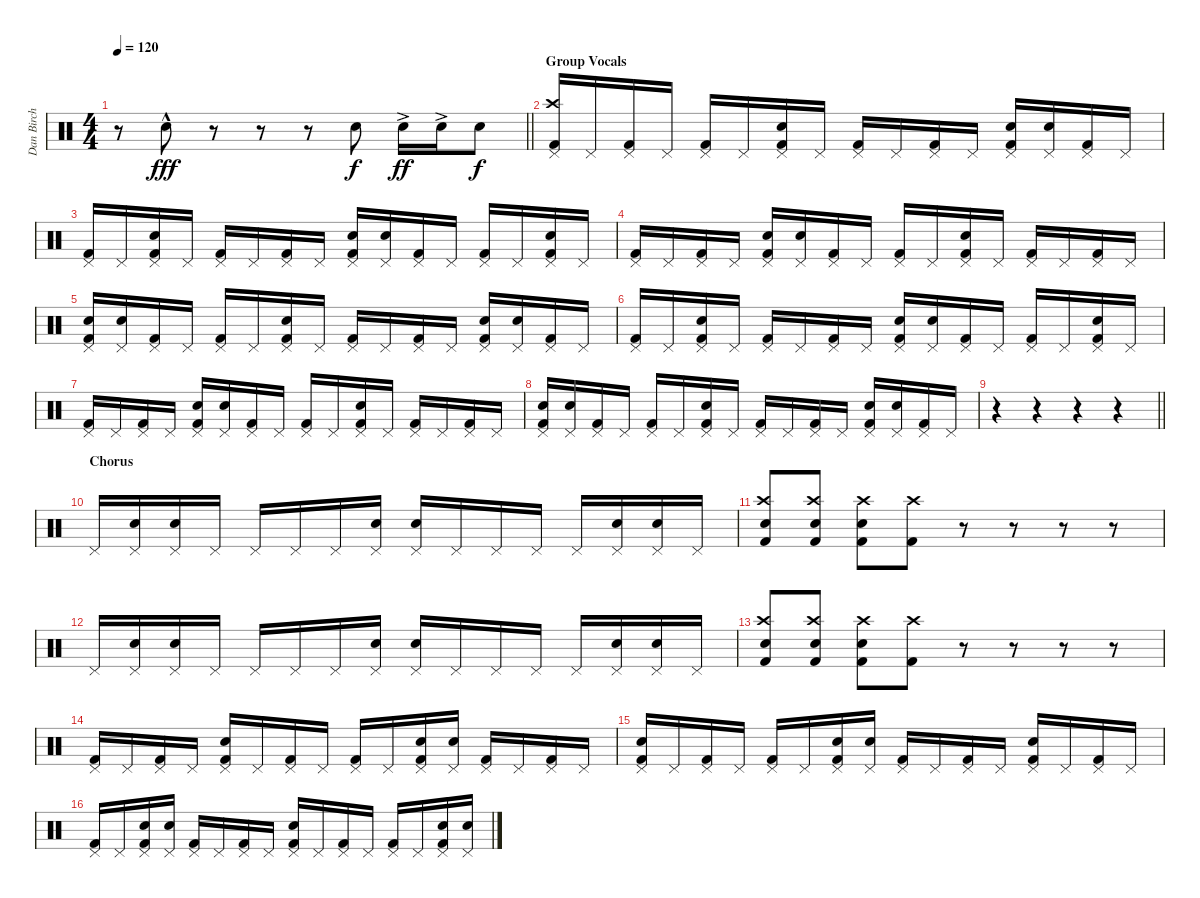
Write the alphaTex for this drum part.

\track ("Dan Birch" "Dan Birch") {instrument percussion}
\staff {score}
\articulation defaults
\ts (4 4)
\tempo 120
\clef neutral
\barLineRight lightlight
\ks c
r.8{dy f} "Snare (hit) 2"{hac}.8{dy fff} r.8 r.8 r.8 "Snare (hit) 2".8{dy f} "Snare (hit) 2"{ac}.16{dy ff} "Snare (hit) 2"{ac}.16 "Snare (hit) 2".8{dy f} |
\section ("" "Group Vocals")
("Pedal Hi-Hat (hit)" "Crash high (hit)" "Kick (hit) 2").16 "Pedal Hi-Hat (hit)".16 ("Pedal Hi-Hat (hit)" "Kick (hit) 2").16 "Pedal Hi-Hat (hit)".16 ("Pedal Hi-Hat (hit)" "Kick (hit) 2").16 "Pedal Hi-Hat (hit)".16 ("Pedal Hi-Hat (hit)" "Snare (hit) 2" "Kick (hit) 2").16 "Pedal Hi-Hat (hit)".16 ("Pedal Hi-Hat (hit)" "Kick (hit) 2").16 "Pedal Hi-Hat (hit)".16 ("Pedal Hi-Hat (hit)" "Kick (hit) 2").16 "Pedal Hi-Hat (hit)".16 ("Pedal Hi-Hat (hit)" "Snare (hit) 2" "Kick (hit) 2").16 ("Pedal Hi-Hat (hit)" "Snare (hit) 2").16 ("Pedal Hi-Hat (hit)" "Kick (hit) 2").16 "Pedal Hi-Hat (hit)".16 |
("Pedal Hi-Hat (hit)" "Kick (hit) 2").16 "Pedal Hi-Hat (hit)".16 ("Pedal Hi-Hat (hit)" "Snare (hit) 2" "Kick (hit) 2").16 "Pedal Hi-Hat (hit)".16 ("Pedal Hi-Hat (hit)" "Kick (hit) 2").16 "Pedal Hi-Hat (hit)".16 ("Pedal Hi-Hat (hit)" "Kick (hit) 2").16 "Pedal Hi-Hat (hit)".16 ("Pedal Hi-Hat (hit)" "Snare (hit) 2" "Kick (hit) 2").16 ("Pedal Hi-Hat (hit)" "Snare (hit) 2").16 ("Pedal Hi-Hat (hit)" "Kick (hit) 2").16 "Pedal Hi-Hat (hit)".16 ("Pedal Hi-Hat (hit)" "Kick (hit) 2").16 "Pedal Hi-Hat (hit)".16 ("Pedal Hi-Hat (hit)" "Snare (hit) 2" "Kick (hit) 2").16 "Pedal Hi-Hat (hit)".16 |
("Pedal Hi-Hat (hit)" "Kick (hit) 2").16 "Pedal Hi-Hat (hit)".16 ("Pedal Hi-Hat (hit)" "Kick (hit) 2").16 "Pedal Hi-Hat (hit)".16 ("Pedal Hi-Hat (hit)" "Snare (hit) 2" "Kick (hit) 2").16 ("Pedal Hi-Hat (hit)" "Snare (hit) 2").16 ("Pedal Hi-Hat (hit)" "Kick (hit) 2").16 "Pedal Hi-Hat (hit)".16 ("Pedal Hi-Hat (hit)" "Kick (hit) 2").16 "Pedal Hi-Hat (hit)".16 ("Pedal Hi-Hat (hit)" "Snare (hit) 2" "Kick (hit) 2").16 "Pedal Hi-Hat (hit)".16 ("Pedal Hi-Hat (hit)" "Kick (hit) 2").16 "Pedal Hi-Hat (hit)".16 ("Pedal Hi-Hat (hit)" "Kick (hit) 2").16 "Pedal Hi-Hat (hit)".16 |
("Pedal Hi-Hat (hit)" "Snare (hit) 2" "Kick (hit) 2").16 ("Pedal Hi-Hat (hit)" "Snare (hit) 2").16 ("Pedal Hi-Hat (hit)" "Kick (hit) 2").16 "Pedal Hi-Hat (hit)".16 ("Pedal Hi-Hat (hit)" "Kick (hit) 2").16 "Pedal Hi-Hat (hit)".16 ("Pedal Hi-Hat (hit)" "Snare (hit) 2" "Kick (hit) 2").16 "Pedal Hi-Hat (hit)".16 ("Pedal Hi-Hat (hit)" "Kick (hit) 2").16 "Pedal Hi-Hat (hit)".16 ("Pedal Hi-Hat (hit)" "Kick (hit) 2").16 "Pedal Hi-Hat (hit)".16 ("Pedal Hi-Hat (hit)" "Snare (hit) 2" "Kick (hit) 2").16 ("Pedal Hi-Hat (hit)" "Snare (hit) 2").16 ("Pedal Hi-Hat (hit)" "Kick (hit) 2").16 "Pedal Hi-Hat (hit)".16 |
("Pedal Hi-Hat (hit)" "Kick (hit) 2").16 "Pedal Hi-Hat (hit)".16 ("Pedal Hi-Hat (hit)" "Snare (hit) 2" "Kick (hit) 2").16 "Pedal Hi-Hat (hit)".16 ("Pedal Hi-Hat (hit)" "Kick (hit) 2").16 "Pedal Hi-Hat (hit)".16 ("Pedal Hi-Hat (hit)" "Kick (hit) 2").16 "Pedal Hi-Hat (hit)".16 ("Pedal Hi-Hat (hit)" "Snare (hit) 2" "Kick (hit) 2").16 ("Pedal Hi-Hat (hit)" "Snare (hit) 2").16 ("Pedal Hi-Hat (hit)" "Kick (hit) 2").16 "Pedal Hi-Hat (hit)".16 ("Pedal Hi-Hat (hit)" "Kick (hit) 2").16 "Pedal Hi-Hat (hit)".16 ("Pedal Hi-Hat (hit)" "Snare (hit) 2" "Kick (hit) 2").16 "Pedal Hi-Hat (hit)".16 |
("Pedal Hi-Hat (hit)" "Kick (hit) 2").16 "Pedal Hi-Hat (hit)".16 ("Pedal Hi-Hat (hit)" "Kick (hit) 2").16 "Pedal Hi-Hat (hit)".16 ("Pedal Hi-Hat (hit)" "Snare (hit) 2" "Kick (hit) 2").16 ("Pedal Hi-Hat (hit)" "Snare (hit) 2").16 ("Pedal Hi-Hat (hit)" "Kick (hit) 2").16 "Pedal Hi-Hat (hit)".16 ("Pedal Hi-Hat (hit)" "Kick (hit) 2").16 "Pedal Hi-Hat (hit)".16 ("Pedal Hi-Hat (hit)" "Snare (hit) 2" "Kick (hit) 2").16 "Pedal Hi-Hat (hit)".16 ("Pedal Hi-Hat (hit)" "Kick (hit) 2").16 "Pedal Hi-Hat (hit)".16 ("Pedal Hi-Hat (hit)" "Kick (hit) 2").16 "Pedal Hi-Hat (hit)".16 |
("Pedal Hi-Hat (hit)" "Snare (hit) 2" "Kick (hit) 2").16 ("Pedal Hi-Hat (hit)" "Snare (hit) 2").16 ("Pedal Hi-Hat (hit)" "Kick (hit) 2").16 "Pedal Hi-Hat (hit)".16 ("Pedal Hi-Hat (hit)" "Kick (hit) 2").16 "Pedal Hi-Hat (hit)".16 ("Pedal Hi-Hat (hit)" "Snare (hit) 2" "Kick (hit) 2").16 "Pedal Hi-Hat (hit)".16 ("Pedal Hi-Hat (hit)" "Kick (hit) 2").16 "Pedal Hi-Hat (hit)".16 ("Pedal Hi-Hat (hit)" "Kick (hit) 2").16 "Pedal Hi-Hat (hit)".16 ("Pedal Hi-Hat (hit)" "Snare (hit) 2" "Kick (hit) 2").16 ("Pedal Hi-Hat (hit)" "Snare (hit) 2").16 ("Pedal Hi-Hat (hit)" "Kick (hit) 2").16 "Pedal Hi-Hat (hit)".16 |
\barLineRight lightlight
r.4 r.4 r.4 r.4 |
\section ("" "Chorus")
"Pedal Hi-Hat (hit)".16 ("Pedal Hi-Hat (hit)" "Snare (hit) 2").16 ("Pedal Hi-Hat (hit)" "Snare (hit) 2").16 "Pedal Hi-Hat (hit)".16 "Pedal Hi-Hat (hit)".16 "Pedal Hi-Hat (hit)".16 "Pedal Hi-Hat (hit)".16 ("Pedal Hi-Hat (hit)" "Snare (hit) 2").16 ("Pedal Hi-Hat (hit)" "Snare (hit) 2").16 "Pedal Hi-Hat (hit)".16 "Pedal Hi-Hat (hit)".16 "Pedal Hi-Hat (hit)".16 "Pedal Hi-Hat (hit)".16 ("Pedal Hi-Hat (hit)" "Snare (hit) 2").16 ("Pedal Hi-Hat (hit)" "Snare (hit) 2").16 "Pedal Hi-Hat (hit)".16 |
("Crash high (hit)" "Snare (hit) 2" "Kick (hit) 2").8 ("Crash high (hit)" "Snare (hit) 2" "Kick (hit) 2").8 ("Crash high (hit)" "Snare (hit) 2" "Kick (hit) 2").8 ("Crash high (hit)" "Kick (hit) 2").8 r.8 r.8 r.8 r.8 |
"Pedal Hi-Hat (hit)".16 ("Pedal Hi-Hat (hit)" "Snare (hit) 2").16 ("Pedal Hi-Hat (hit)" "Snare (hit) 2").16 "Pedal Hi-Hat (hit)".16 "Pedal Hi-Hat (hit)".16 "Pedal Hi-Hat (hit)".16 "Pedal Hi-Hat (hit)".16 ("Pedal Hi-Hat (hit)" "Snare (hit) 2").16 ("Pedal Hi-Hat (hit)" "Snare (hit) 2").16 "Pedal Hi-Hat (hit)".16 "Pedal Hi-Hat (hit)".16 "Pedal Hi-Hat (hit)".16 "Pedal Hi-Hat (hit)".16 ("Pedal Hi-Hat (hit)" "Snare (hit) 2").16 ("Pedal Hi-Hat (hit)" "Snare (hit) 2").16 "Pedal Hi-Hat (hit)".16 |
("Crash high (hit)" "Snare (hit) 2" "Kick (hit) 2").8 ("Crash high (hit)" "Snare (hit) 2" "Kick (hit) 2").8 ("Crash high (hit)" "Snare (hit) 2" "Kick (hit) 2").8 ("Crash high (hit)" "Kick (hit) 2").8 r.8 r.8 r.8 r.8 |
("Pedal Hi-Hat (hit)" "Kick (hit) 2").16 "Pedal Hi-Hat (hit)".16 ("Pedal Hi-Hat (hit)" "Kick (hit) 2").16 "Pedal Hi-Hat (hit)".16 ("Pedal Hi-Hat (hit)" "Snare (hit) 2" "Kick (hit) 2").16 "Pedal Hi-Hat (hit)".16 ("Pedal Hi-Hat (hit)" "Kick (hit) 2").16 "Pedal Hi-Hat (hit)".16 ("Pedal Hi-Hat (hit)" "Kick (hit) 2").16 "Pedal Hi-Hat (hit)".16 ("Pedal Hi-Hat (hit)" "Snare (hit) 2" "Kick (hit) 2").16 ("Pedal Hi-Hat (hit)" "Snare (hit) 2").16 ("Pedal Hi-Hat (hit)" "Kick (hit) 2").16 "Pedal Hi-Hat (hit)".16 ("Pedal Hi-Hat (hit)" "Kick (hit) 2").16 "Pedal Hi-Hat (hit)".16 |
("Pedal Hi-Hat (hit)" "Snare (hit) 2" "Kick (hit) 2").16 "Pedal Hi-Hat (hit)".16 ("Pedal Hi-Hat (hit)" "Kick (hit) 2").16 "Pedal Hi-Hat (hit)".16 ("Pedal Hi-Hat (hit)" "Kick (hit) 2").16 "Pedal Hi-Hat (hit)".16 ("Pedal Hi-Hat (hit)" "Snare (hit) 2" "Kick (hit) 2").16 ("Pedal Hi-Hat (hit)" "Snare (hit) 2").16 ("Pedal Hi-Hat (hit)" "Kick (hit) 2").16 "Pedal Hi-Hat (hit)".16 ("Pedal Hi-Hat (hit)" "Kick (hit) 2").16 "Pedal Hi-Hat (hit)".16 ("Pedal Hi-Hat (hit)" "Snare (hit) 2" "Kick (hit) 2").16 "Pedal Hi-Hat (hit)".16 ("Pedal Hi-Hat (hit)" "Kick (hit) 2").16 "Pedal Hi-Hat (hit)".16 |
("Pedal Hi-Hat (hit)" "Kick (hit) 2").16 "Pedal Hi-Hat (hit)".16 ("Pedal Hi-Hat (hit)" "Snare (hit) 2" "Kick (hit) 2").16 ("Pedal Hi-Hat (hit)" "Snare (hit) 2").16 ("Pedal Hi-Hat (hit)" "Kick (hit) 2").16 "Pedal Hi-Hat (hit)".16 ("Pedal Hi-Hat (hit)" "Kick (hit) 2").16 "Pedal Hi-Hat (hit)".16 ("Pedal Hi-Hat (hit)" "Snare (hit) 2" "Kick (hit) 2").16 "Pedal Hi-Hat (hit)".16 ("Pedal Hi-Hat (hit)" "Kick (hit) 2").16 "Pedal Hi-Hat (hit)".16 ("Pedal Hi-Hat (hit)" "Kick (hit) 2").16 "Pedal Hi-Hat (hit)".16 ("Pedal Hi-Hat (hit)" "Snare (hit) 2" "Kick (hit) 2").16 ("Pedal Hi-Hat (hit)" "Snare (hit) 2").16
